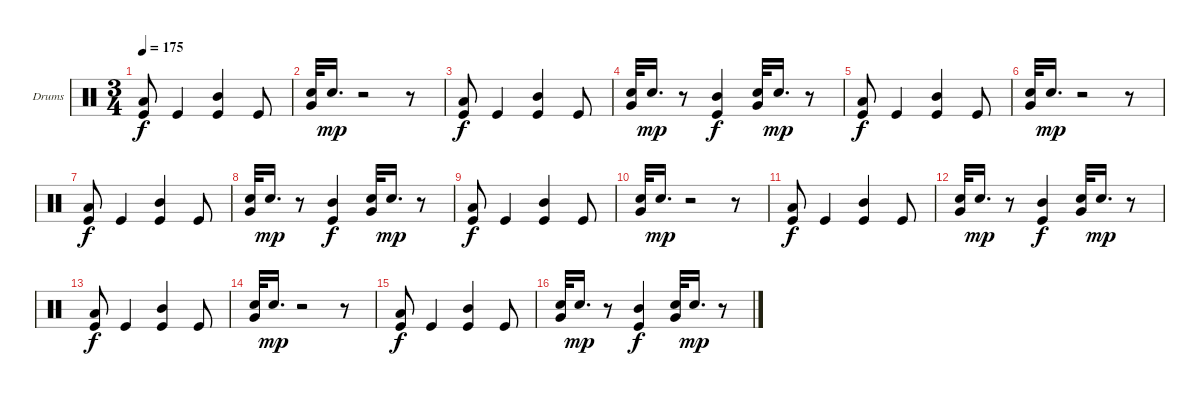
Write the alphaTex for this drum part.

\bracketExtendMode groupsimilarinstruments
\firstSystemTrackNameOrientation horizontal
\otherSystemsTrackNameOrientation horizontal
\track ("Drums" "Drums") {instrument percussion}
\staff {score}
\articulation defaults
\ts (3 4)
\tempo 175
\clef neutral
\ks c
("Low Tom (hit)" "Kick (hit)").8{dy f} "Kick (hit)".4 ("Mid Tom (hit)" "Kick (hit)").4 "Kick (hit)".8 |
("Very Low Tom (hit)" "Snare (hit) 2").32 "Snare (hit) 2".16{d dy mp} r.2 r.8 |
("Low Tom (hit)" "Kick (hit)").8{dy f} "Kick (hit)".4 ("Mid Tom (hit)" "Kick (hit)").4 "Kick (hit)".8 |
("Very Low Tom (hit)" "Snare (hit) 2").32 "Snare (hit) 2".16{d dy mp} r.8 ("Mid Tom (hit)" "Kick (hit)").4{dy f} ("Very Low Tom (hit)" "Snare (hit) 2").32 "Snare (hit) 2".16{d dy mp} r.8 |
("Low Tom (hit)" "Kick (hit)").8{dy f} "Kick (hit)".4 ("Mid Tom (hit)" "Kick (hit)").4 "Kick (hit)".8 |
("Very Low Tom (hit)" "Snare (hit) 2").32 "Snare (hit) 2".16{d dy mp} r.2 r.8 |
("Low Tom (hit)" "Kick (hit)").8{dy f} "Kick (hit)".4 ("Mid Tom (hit)" "Kick (hit)").4 "Kick (hit)".8 |
("Very Low Tom (hit)" "Snare (hit) 2").32 "Snare (hit) 2".16{d dy mp} r.8 ("Mid Tom (hit)" "Kick (hit)").4{dy f} ("Very Low Tom (hit)" "Snare (hit) 2").32 "Snare (hit) 2".16{d dy mp} r.8 |
("Low Tom (hit)" "Kick (hit)").8{dy f} "Kick (hit)".4 ("Mid Tom (hit)" "Kick (hit)").4 "Kick (hit)".8 |
("Very Low Tom (hit)" "Snare (hit) 2").32 "Snare (hit) 2".16{d dy mp} r.2 r.8 |
("Low Tom (hit)" "Kick (hit)").8{dy f} "Kick (hit)".4 ("Mid Tom (hit)" "Kick (hit)").4 "Kick (hit)".8 |
("Very Low Tom (hit)" "Snare (hit) 2").32 "Snare (hit) 2".16{d dy mp} r.8 ("Mid Tom (hit)" "Kick (hit)").4{dy f} ("Very Low Tom (hit)" "Snare (hit) 2").32 "Snare (hit) 2".16{d dy mp} r.8 |
("Low Tom (hit)" "Kick (hit)").8{dy f} "Kick (hit)".4 ("Mid Tom (hit)" "Kick (hit)").4 "Kick (hit)".8 |
("Very Low Tom (hit)" "Snare (hit) 2").32 "Snare (hit) 2".16{d dy mp} r.2 r.8 |
("Low Tom (hit)" "Kick (hit)").8{dy f} "Kick (hit)".4 ("Mid Tom (hit)" "Kick (hit)").4 "Kick (hit)".8 |
("Very Low Tom (hit)" "Snare (hit) 2").32 "Snare (hit) 2".16{d dy mp} r.8 ("Mid Tom (hit)" "Kick (hit)").4{dy f} ("Very Low Tom (hit)" "Snare (hit) 2").32 "Snare (hit) 2".16{d dy mp} r.8
